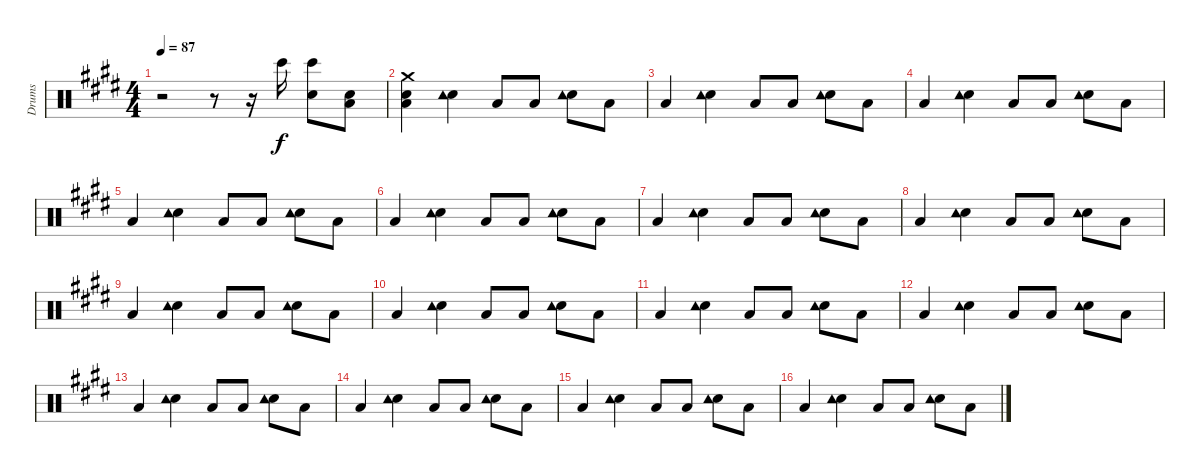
\track ("Drums" "Drums") {instrument percussion}
\staff {score}
\articulation defaults
\ts (4 4)
\tempo 87
\clef neutral
\ks e
r.2{dy f} r.8 r.16 "Bongo High (hit)".16 ("Bongo High (hit)" "Snare (hit) 2").8 ("Low Floor Tom (hit)" "Snare (hit) 2").8 |
("Low Floor Tom (hit)" "Crash medium (hit)" "Snare (hit) 2").4 ("Electric Snare (hit)" "Tambourine (hit)").4 "Low Floor Tom (hit)".8 "Low Floor Tom (hit)".8 ("Electric Snare (hit)" "Tambourine (hit)").8 "Low Floor Tom (hit)".8 |
"Low Floor Tom (hit)".4 ("Electric Snare (hit)" "Tambourine (hit)").4 "Low Floor Tom (hit)".8 "Low Floor Tom (hit)".8 ("Electric Snare (hit)" "Tambourine (hit)").8 "Low Floor Tom (hit)".8 |
"Low Floor Tom (hit)".4 ("Electric Snare (hit)" "Tambourine (hit)").4 "Low Floor Tom (hit)".8 "Low Floor Tom (hit)".8 ("Electric Snare (hit)" "Tambourine (hit)").8 "Low Floor Tom (hit)".8 |
"Low Floor Tom (hit)".4 ("Electric Snare (hit)" "Tambourine (hit)").4 "Low Floor Tom (hit)".8 "Low Floor Tom (hit)".8 ("Electric Snare (hit)" "Tambourine (hit)").8 "Low Floor Tom (hit)".8 |
"Low Floor Tom (hit)".4 ("Electric Snare (hit)" "Tambourine (hit)").4 "Low Floor Tom (hit)".8 "Low Floor Tom (hit)".8 ("Electric Snare (hit)" "Tambourine (hit)").8 "Low Floor Tom (hit)".8 |
"Low Floor Tom (hit)".4 ("Electric Snare (hit)" "Tambourine (hit)").4 "Low Floor Tom (hit)".8 "Low Floor Tom (hit)".8 ("Electric Snare (hit)" "Tambourine (hit)").8 "Low Floor Tom (hit)".8 |
"Low Floor Tom (hit)".4 ("Electric Snare (hit)" "Tambourine (hit)").4 "Low Floor Tom (hit)".8 "Low Floor Tom (hit)".8 ("Electric Snare (hit)" "Tambourine (hit)").8 "Low Floor Tom (hit)".8 |
"Low Floor Tom (hit)".4 ("Electric Snare (hit)" "Tambourine (hit)").4 "Low Floor Tom (hit)".8 "Low Floor Tom (hit)".8 ("Electric Snare (hit)" "Tambourine (hit)").8 "Low Floor Tom (hit)".8 |
"Low Floor Tom (hit)".4 ("Electric Snare (hit)" "Tambourine (hit)").4 "Low Floor Tom (hit)".8 "Low Floor Tom (hit)".8 ("Electric Snare (hit)" "Tambourine (hit)").8 "Low Floor Tom (hit)".8 |
"Low Floor Tom (hit)".4 ("Electric Snare (hit)" "Tambourine (hit)").4 "Low Floor Tom (hit)".8 "Low Floor Tom (hit)".8 ("Electric Snare (hit)" "Tambourine (hit)").8 "Low Floor Tom (hit)".8 |
"Low Floor Tom (hit)".4 ("Electric Snare (hit)" "Tambourine (hit)").4 "Low Floor Tom (hit)".8 "Low Floor Tom (hit)".8 ("Electric Snare (hit)" "Tambourine (hit)").8 "Low Floor Tom (hit)".8 |
"Low Floor Tom (hit)".4 ("Electric Snare (hit)" "Tambourine (hit)").4 "Low Floor Tom (hit)".8 "Low Floor Tom (hit)".8 ("Electric Snare (hit)" "Tambourine (hit)").8 "Low Floor Tom (hit)".8 |
"Low Floor Tom (hit)".4 ("Electric Snare (hit)" "Tambourine (hit)").4 "Low Floor Tom (hit)".8 "Low Floor Tom (hit)".8 ("Electric Snare (hit)" "Tambourine (hit)").8 "Low Floor Tom (hit)".8 |
"Low Floor Tom (hit)".4 ("Electric Snare (hit)" "Tambourine (hit)").4 "Low Floor Tom (hit)".8 "Low Floor Tom (hit)".8 ("Electric Snare (hit)" "Tambourine (hit)").8 "Low Floor Tom (hit)".8 |
"Low Floor Tom (hit)".4 ("Electric Snare (hit)" "Tambourine (hit)").4 "Low Floor Tom (hit)".8 "Low Floor Tom (hit)".8 ("Electric Snare (hit)" "Tambourine (hit)").8 "Low Floor Tom (hit)".8
